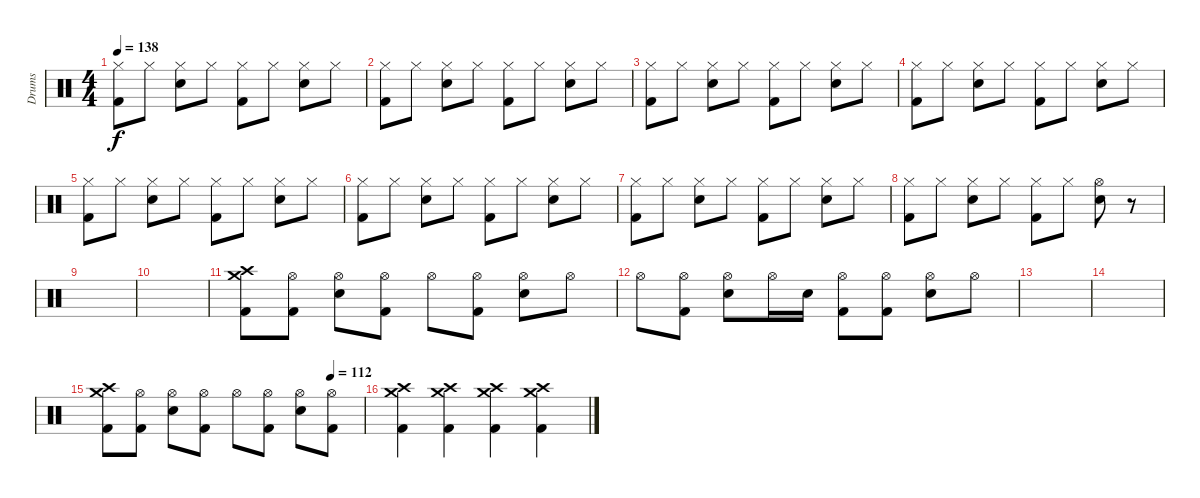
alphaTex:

\track ("Drums" "Drums") {instrument percussion}
\staff {score}
\articulation defaults
\ts (4 4)
\tempo 138
\clef neutral
\ks c
("Hi-Hat (closed)" "Kick (hit) 2").8{dy f} "Hi-Hat (closed)".8 ("Hi-Hat (closed)" "Electric Snare (hit)").8 "Hi-Hat (closed)".8 ("Hi-Hat (closed)" "Kick (hit) 2").8 "Hi-Hat (closed)".8 ("Hi-Hat (closed)" "Electric Snare (hit)").8 "Hi-Hat (closed)".8 |
("Hi-Hat (closed)" "Kick (hit) 2").8 "Hi-Hat (closed)".8 ("Hi-Hat (closed)" "Electric Snare (hit)").8 "Hi-Hat (closed)".8 ("Hi-Hat (closed)" "Kick (hit) 2").8 "Hi-Hat (closed)".8 ("Hi-Hat (closed)" "Electric Snare (hit)").8 "Hi-Hat (closed)".8 |
("Hi-Hat (closed)" "Kick (hit) 2").8 "Hi-Hat (closed)".8 ("Hi-Hat (closed)" "Electric Snare (hit)").8 "Hi-Hat (closed)".8 ("Hi-Hat (closed)" "Kick (hit) 2").8 "Hi-Hat (closed)".8 ("Hi-Hat (closed)" "Electric Snare (hit)").8 "Hi-Hat (closed)".8 |
("Hi-Hat (closed)" "Kick (hit) 2").8 "Hi-Hat (closed)".8 ("Hi-Hat (closed)" "Electric Snare (hit)").8 "Hi-Hat (closed)".8 ("Hi-Hat (closed)" "Kick (hit) 2").8 "Hi-Hat (closed)".8 ("Hi-Hat (closed)" "Electric Snare (hit)").8 "Hi-Hat (closed)".8 |
("Hi-Hat (closed)" "Kick (hit) 2").8 "Hi-Hat (closed)".8 ("Hi-Hat (closed)" "Electric Snare (hit)").8 "Hi-Hat (closed)".8 ("Hi-Hat (closed)" "Kick (hit) 2").8 "Hi-Hat (closed)".8 ("Hi-Hat (closed)" "Electric Snare (hit)").8 "Hi-Hat (closed)".8 |
("Hi-Hat (closed)" "Kick (hit) 2").8 "Hi-Hat (closed)".8 ("Hi-Hat (closed)" "Electric Snare (hit)").8 "Hi-Hat (closed)".8 ("Hi-Hat (closed)" "Kick (hit) 2").8 "Hi-Hat (closed)".8 ("Hi-Hat (closed)" "Electric Snare (hit)").8 "Hi-Hat (closed)".8 |
("Hi-Hat (closed)" "Kick (hit) 2").8 "Hi-Hat (closed)".8 ("Hi-Hat (closed)" "Electric Snare (hit)").8 "Hi-Hat (closed)".8 ("Hi-Hat (closed)" "Kick (hit) 2").8 "Hi-Hat (closed)".8 ("Hi-Hat (closed)" "Electric Snare (hit)").8 "Hi-Hat (closed)".8 |
("Hi-Hat (closed)" "Kick (hit) 2").8 "Hi-Hat (closed)".8 ("Hi-Hat (closed)" "Electric Snare (hit)").8 "Hi-Hat (closed)".8 ("Hi-Hat (closed)" "Kick (hit) 2").8 "Hi-Hat (closed)".8 ("Hi-Hat (open)" "Electric Snare (hit)").8 r.8 |
|
|
("Crash medium (hit)" "Crash high (hit)" "Kick (hit) 2").8 ("Hi-Hat (open)" "Kick (hit) 2").8 ("Hi-Hat (open)" "Electric Snare (hit)").8 ("Hi-Hat (open)" "Kick (hit) 2").8 "Hi-Hat (open)".8 ("Hi-Hat (open)" "Kick (hit) 2").8 ("Hi-Hat (open)" "Electric Snare (hit)").8 "Hi-Hat (open)".8 |
"Hi-Hat (open)".8 ("Hi-Hat (open)" "Kick (hit) 2").8 ("Hi-Hat (open)" "Electric Snare (hit)").8 "Hi-Hat (open)".16 "Electric Snare (hit)".16 ("Hi-Hat (open)" "Kick (hit) 2").8 ("Hi-Hat (open)" "Kick (hit) 2").8 ("Hi-Hat (open)" "Electric Snare (hit)").8 "Hi-Hat (open)".8 |
|
|
\tempo (112 0.875)
("Crash medium (hit)" "Crash high (hit)" "Kick (hit) 2").8 ("Hi-Hat (open)" "Kick (hit) 2").8 ("Hi-Hat (open)" "Electric Snare (hit)").8 ("Hi-Hat (open)" "Kick (hit) 2").8 "Hi-Hat (open)".8 ("Hi-Hat (open)" "Kick (hit) 2").8 ("Hi-Hat (open)" "Electric Snare (hit)").8 ("Hi-Hat (open)" "Kick (hit) 2").8 |
("Crash medium (hit)" "Crash high (hit)" "Kick (hit) 2").4 ("Crash medium (hit)" "Crash high (hit)" "Kick (hit) 2").4 ("Crash medium (hit)" "Crash high (hit)" "Kick (hit) 2").4 ("Crash medium (hit)" "Crash high (hit)" "Kick (hit) 2").4
